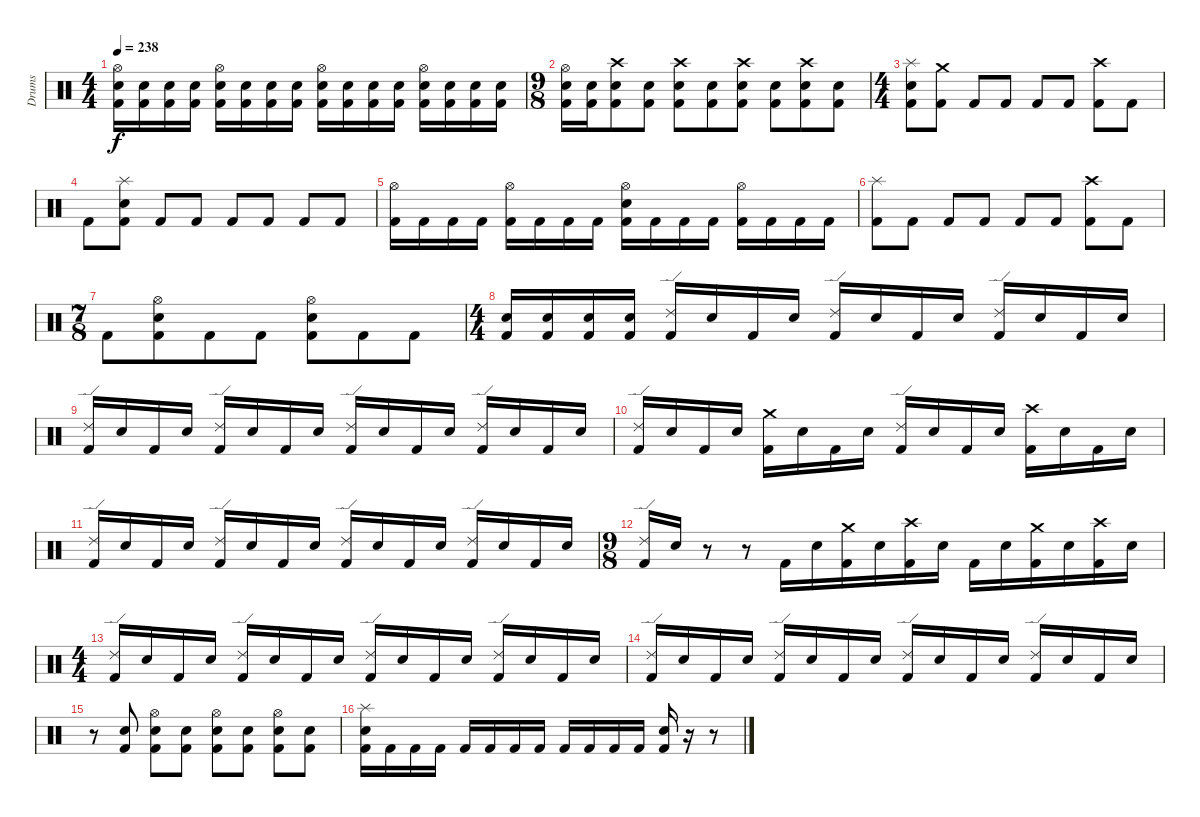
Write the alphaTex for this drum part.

\track ("Drums" "Drums") {instrument percussion}
\staff {score}
\articulation defaults
\ts (4 4)
\tempo 238
\clef neutral
\ks c
("Kick (hit) 2" "Electric Snare (hit)" "Hi-Hat (open)").16{dy f} ("Kick (hit) 2" "Electric Snare (hit)").16 ("Kick (hit) 2" "Electric Snare (hit)").16 ("Kick (hit) 2" "Electric Snare (hit)").16 ("Kick (hit) 2" "Electric Snare (hit)" "Hi-Hat (open)").16 ("Kick (hit) 2" "Electric Snare (hit)").16 ("Kick (hit) 2" "Electric Snare (hit)").16 ("Kick (hit) 2" "Electric Snare (hit)").16 ("Kick (hit) 2" "Electric Snare (hit)" "Hi-Hat (open)").16 ("Kick (hit) 2" "Electric Snare (hit)").16 ("Kick (hit) 2" "Electric Snare (hit)").16 ("Kick (hit) 2" "Electric Snare (hit)").16 ("Kick (hit) 2" "Electric Snare (hit)" "Hi-Hat (open)").16 ("Kick (hit) 2" "Electric Snare (hit)").16 ("Kick (hit) 2" "Electric Snare (hit)").16 ("Kick (hit) 2" "Electric Snare (hit)").16 |
\ts (9 8)
("Kick (hit) 2" "Electric Snare (hit)" "Hi-Hat (open)").16 ("Kick (hit) 2" "Electric Snare (hit)").16 ("Kick (hit) 2" "Electric Snare (hit)" "Crash high (hit)").8 ("Kick (hit) 2" "Electric Snare (hit)").8 ("Kick (hit) 2" "Electric Snare (hit)" "Crash high (hit)").8 ("Kick (hit) 2" "Electric Snare (hit)").8 ("Kick (hit) 2" "Electric Snare (hit)" "Crash high (hit)").8 ("Kick (hit) 2" "Electric Snare (hit)").8 ("Kick (hit) 2" "Electric Snare (hit)" "Crash high (hit)").8 ("Kick (hit) 2" "Electric Snare (hit)").8 |
\ts (4 4)
("Kick (hit) 2" "Electric Snare (hit)" "Splash (hit)").8 ("Kick (hit) 2" "Crash medium (hit)").8 "Kick (hit) 2".8 "Kick (hit) 2".8 "Kick (hit) 2".8 "Kick (hit) 2".8 ("Kick (hit) 2" "Crash high (hit)").8 "Kick (hit) 2".8 |
"Kick (hit) 2".8 ("Kick (hit) 2" "Electric Snare (hit)" "Splash (hit)").8 "Kick (hit) 2".8 "Kick (hit) 2".8 "Kick (hit) 2".8 "Kick (hit) 2".8 "Kick (hit) 2".8 "Kick (hit) 2".8 |
("Kick (hit) 2" "Hi-Hat (open)").16 "Kick (hit) 2".16 "Kick (hit) 2".16 "Kick (hit) 2".16 ("Kick (hit) 2" "Hi-Hat (open)").16 "Kick (hit) 2".16 "Kick (hit) 2".16 "Kick (hit) 2".16 ("Kick (hit) 2" "Electric Snare (hit)" "Hi-Hat (open)").16 "Kick (hit) 2".16 "Kick (hit) 2".16 "Kick (hit) 2".16 ("Kick (hit) 2" "Hi-Hat (open)").16 "Kick (hit) 2".16 "Kick (hit) 2".16 "Kick (hit) 2".16 |
("Kick (hit) 2" "Splash (hit)").8 "Kick (hit) 2".8 "Kick (hit) 2".8 "Kick (hit) 2".8 "Kick (hit) 2".8 "Kick (hit) 2".8 ("Kick (hit) 2" "Crash high (hit)").8 "Kick (hit) 2".8 |
\ts (7 8)
"Kick (hit) 2".8 ("Kick (hit) 2" "Electric Snare (hit)" "Hi-Hat (open)").8 "Kick (hit) 2".8 "Kick (hit) 2".8 ("Kick (hit) 2" "Electric Snare (hit)" "Hi-Hat (open)").8 "Kick (hit) 2".8 "Kick (hit) 2".8 |
\ts (4 4)
("Kick (hit) 2" "Electric Snare (hit)").16 ("Kick (hit) 2" "Electric Snare (hit)").16 ("Kick (hit) 2" "Electric Snare (hit)").16 ("Kick (hit) 2" "Electric Snare (hit)").16 ("Kick (hit) 2" "Ride (edge) 2").16 "Electric Snare (hit)".16 "Kick (hit) 2".16 "Electric Snare (hit)".16 ("Kick (hit) 2" "Ride (edge) 2").16 "Electric Snare (hit)".16 "Kick (hit) 2".16 "Electric Snare (hit)".16 ("Kick (hit) 2" "Ride (edge) 2").16 "Electric Snare (hit)".16 "Kick (hit) 2".16 "Electric Snare (hit)".16 |
("Kick (hit) 2" "Ride (edge) 2").16 "Electric Snare (hit)".16 "Kick (hit) 2".16 "Electric Snare (hit)".16 ("Kick (hit) 2" "Ride (edge) 2").16 "Electric Snare (hit)".16 "Kick (hit) 2".16 "Electric Snare (hit)".16 ("Kick (hit) 2" "Ride (edge) 2").16 "Electric Snare (hit)".16 "Kick (hit) 2".16 "Electric Snare (hit)".16 ("Kick (hit) 2" "Ride (edge) 2").16 "Electric Snare (hit)".16 "Kick (hit) 2".16 "Electric Snare (hit)".16 |
("Kick (hit) 2" "Ride (edge) 2").16 "Electric Snare (hit)".16 "Kick (hit) 2".16 "Electric Snare (hit)".16 ("Kick (hit) 2" "Crash medium (hit)").16 "Electric Snare (hit)".16 "Kick (hit) 2".16 "Electric Snare (hit)".16 ("Kick (hit) 2" "Ride (edge) 2").16 "Electric Snare (hit)".16 "Kick (hit) 2".16 "Electric Snare (hit)".16 ("Kick (hit) 2" "Crash high (hit)").16 "Electric Snare (hit)".16 "Kick (hit) 2".16 "Electric Snare (hit)".16 |
("Kick (hit) 2" "Ride (edge) 2").16 "Electric Snare (hit)".16 "Kick (hit) 2".16 "Electric Snare (hit)".16 ("Kick (hit) 2" "Ride (edge) 2").16 "Electric Snare (hit)".16 "Kick (hit) 2".16 "Electric Snare (hit)".16 ("Kick (hit) 2" "Ride (edge) 2").16 "Electric Snare (hit)".16 "Kick (hit) 2".16 "Electric Snare (hit)".16 ("Kick (hit) 2" "Ride (edge) 2").16 "Electric Snare (hit)".16 "Kick (hit) 2".16 "Electric Snare (hit)".16 |
\ts (9 8)
("Kick (hit) 2" "Ride (edge) 2").16 "Electric Snare (hit)".16 r.8 r.8 "Kick (hit) 2".16 "Electric Snare (hit)".16 ("Kick (hit) 2" "Crash medium (hit)").16 "Electric Snare (hit)".16 ("Kick (hit) 2" "Crash high (hit)").16 "Electric Snare (hit)".16 "Kick (hit) 2".16 "Electric Snare (hit)".16 ("Kick (hit) 2" "Crash medium (hit)").16 "Electric Snare (hit)".16 ("Kick (hit) 2" "Crash high (hit)").16 "Electric Snare (hit)".16 |
\ts (4 4)
("Kick (hit) 2" "Ride (edge) 2").16 "Electric Snare (hit)".16 "Kick (hit) 2".16 "Electric Snare (hit)".16 ("Kick (hit) 2" "Ride (edge) 2").16 "Electric Snare (hit)".16 "Kick (hit) 2".16 "Electric Snare (hit)".16 ("Kick (hit) 2" "Ride (edge) 2").16 "Electric Snare (hit)".16 "Kick (hit) 2".16 "Electric Snare (hit)".16 ("Kick (hit) 2" "Ride (edge) 2").16 "Electric Snare (hit)".16 "Kick (hit) 2".16 "Electric Snare (hit)".16 |
("Kick (hit) 2" "Ride (edge) 2").16 "Electric Snare (hit)".16 "Kick (hit) 2".16 "Electric Snare (hit)".16 ("Kick (hit) 2" "Ride (edge) 2").16 "Electric Snare (hit)".16 "Kick (hit) 2".16 "Electric Snare (hit)".16 ("Kick (hit) 2" "Ride (edge) 2").16 "Electric Snare (hit)".16 "Kick (hit) 2".16 "Electric Snare (hit)".16 ("Kick (hit) 2" "Ride (edge) 2").16 "Electric Snare (hit)".16 "Kick (hit) 2".16 "Electric Snare (hit)".16 |
r.8 ("Kick (hit) 2" "Electric Snare (hit)").8 ("Kick (hit) 2" "Electric Snare (hit)" "Hi-Hat (open)").8 ("Kick (hit) 2" "Electric Snare (hit)").8 ("Kick (hit) 2" "Electric Snare (hit)" "Hi-Hat (open)").8 ("Kick (hit) 2" "Electric Snare (hit)").8 ("Kick (hit) 2" "Electric Snare (hit)" "Hi-Hat (open)").8 ("Kick (hit) 2" "Electric Snare (hit)").8 |
("Kick (hit) 2" "Electric Snare (hit)" "Splash (hit)").16 "Kick (hit) 2".16 "Kick (hit) 2".16 "Kick (hit) 2".16 "Kick (hit) 2".16 "Kick (hit) 2".16 "Kick (hit) 2".16 "Kick (hit) 2".16 "Kick (hit) 2".16 "Kick (hit) 2".16 "Kick (hit) 2".16 "Kick (hit) 2".16 ("Kick (hit) 2" "Electric Snare (hit)").16 r.16 r.8
